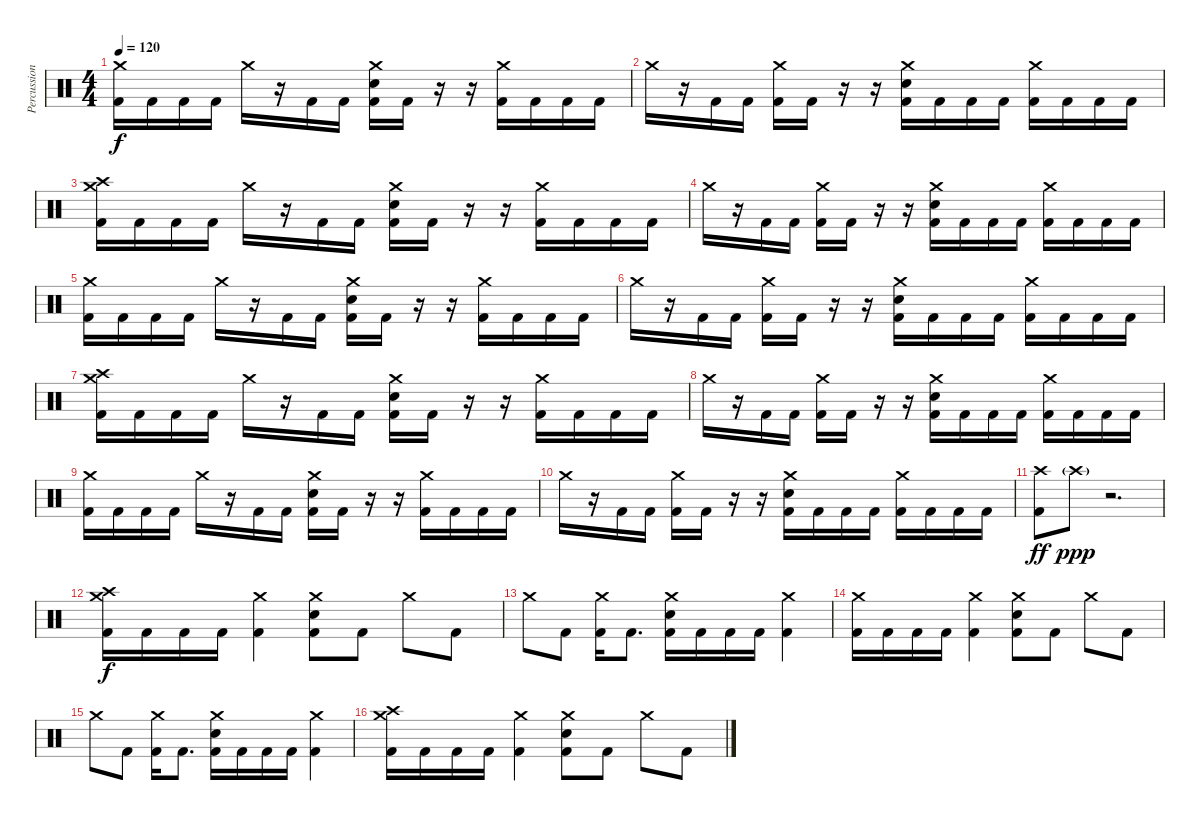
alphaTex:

\track ("Percussion" "Percussion") {instrument percussion}
\staff {score}
\articulation defaults
\ts (4 4)
\tempo 120
\clef neutral
\ks c
("Crash medium (hit)" "Kick (hit) 2").16{dy f} "Kick (hit) 2".16 "Kick (hit) 2".16 "Kick (hit) 2".16 "Crash medium (hit)".16 r.16 "Kick (hit) 2".16 "Kick (hit) 2".16 ("Crash medium (hit)" "Electric Snare (hit)" "Kick (hit) 2").16 "Kick (hit) 2".16 r.16 r.16 ("Crash medium (hit)" "Kick (hit) 2").16 "Kick (hit) 2".16 "Kick (hit) 2".16 "Kick (hit) 2".16 |
"Crash medium (hit)".16 r.16 "Kick (hit) 2".16 "Kick (hit) 2".16 ("Crash medium (hit)" "Kick (hit) 2").16 "Kick (hit) 2".16 r.16 r.16 ("Crash medium (hit)" "Electric Snare (hit)" "Kick (hit) 2").16 "Kick (hit) 2".16 "Kick (hit) 2".16 "Kick (hit) 2".16 ("Crash medium (hit)" "Kick (hit) 2").16 "Kick (hit) 2".16 "Kick (hit) 2".16 "Kick (hit) 2".16 |
("Crash medium (hit)" "Crash high (hit)" "Kick (hit) 2").16 "Kick (hit) 2".16 "Kick (hit) 2".16 "Kick (hit) 2".16 "Crash medium (hit)".16 r.16 "Kick (hit) 2".16 "Kick (hit) 2".16 ("Crash medium (hit)" "Electric Snare (hit)" "Kick (hit) 2").16 "Kick (hit) 2".16 r.16 r.16 ("Crash medium (hit)" "Kick (hit) 2").16 "Kick (hit) 2".16 "Kick (hit) 2".16 "Kick (hit) 2".16 |
"Crash medium (hit)".16 r.16 "Kick (hit) 2".16 "Kick (hit) 2".16 ("Crash medium (hit)" "Kick (hit) 2").16 "Kick (hit) 2".16 r.16 r.16 ("Crash medium (hit)" "Electric Snare (hit)" "Kick (hit) 2").16 "Kick (hit) 2".16 "Kick (hit) 2".16 "Kick (hit) 2".16 ("Crash medium (hit)" "Kick (hit) 2").16 "Kick (hit) 2".16 "Kick (hit) 2".16 "Kick (hit) 2".16 |
("Crash medium (hit)" "Kick (hit) 2").16 "Kick (hit) 2".16 "Kick (hit) 2".16 "Kick (hit) 2".16 "Crash medium (hit)".16 r.16 "Kick (hit) 2".16 "Kick (hit) 2".16 ("Crash medium (hit)" "Electric Snare (hit)" "Kick (hit) 2").16 "Kick (hit) 2".16 r.16 r.16 ("Crash medium (hit)" "Kick (hit) 2").16 "Kick (hit) 2".16 "Kick (hit) 2".16 "Kick (hit) 2".16 |
"Crash medium (hit)".16 r.16 "Kick (hit) 2".16 "Kick (hit) 2".16 ("Crash medium (hit)" "Kick (hit) 2").16 "Kick (hit) 2".16 r.16 r.16 ("Crash medium (hit)" "Electric Snare (hit)" "Kick (hit) 2").16 "Kick (hit) 2".16 "Kick (hit) 2".16 "Kick (hit) 2".16 ("Crash medium (hit)" "Kick (hit) 2").16 "Kick (hit) 2".16 "Kick (hit) 2".16 "Kick (hit) 2".16 |
("Crash medium (hit)" "Crash high (hit)" "Kick (hit) 2").16 "Kick (hit) 2".16 "Kick (hit) 2".16 "Kick (hit) 2".16 "Crash medium (hit)".16 r.16 "Kick (hit) 2".16 "Kick (hit) 2".16 ("Crash medium (hit)" "Electric Snare (hit)" "Kick (hit) 2").16 "Kick (hit) 2".16 r.16 r.16 ("Crash medium (hit)" "Kick (hit) 2").16 "Kick (hit) 2".16 "Kick (hit) 2".16 "Kick (hit) 2".16 |
"Crash medium (hit)".16 r.16 "Kick (hit) 2".16 "Kick (hit) 2".16 ("Crash medium (hit)" "Kick (hit) 2").16 "Kick (hit) 2".16 r.16 r.16 ("Crash medium (hit)" "Electric Snare (hit)" "Kick (hit) 2").16 "Kick (hit) 2".16 "Kick (hit) 2".16 "Kick (hit) 2".16 ("Crash medium (hit)" "Kick (hit) 2").16 "Kick (hit) 2".16 "Kick (hit) 2".16 "Kick (hit) 2".16 |
("Crash medium (hit)" "Kick (hit) 2").16 "Kick (hit) 2".16 "Kick (hit) 2".16 "Kick (hit) 2".16 "Crash medium (hit)".16 r.16 "Kick (hit) 2".16 "Kick (hit) 2".16 ("Crash medium (hit)" "Electric Snare (hit)" "Kick (hit) 2").16 "Kick (hit) 2".16 r.16 r.16 ("Crash medium (hit)" "Kick (hit) 2").16 "Kick (hit) 2".16 "Kick (hit) 2".16 "Kick (hit) 2".16 |
"Crash medium (hit)".16 r.16 "Kick (hit) 2".16 "Kick (hit) 2".16 ("Crash medium (hit)" "Kick (hit) 2").16 "Kick (hit) 2".16 r.16 r.16 ("Crash medium (hit)" "Electric Snare (hit)" "Kick (hit) 2").16 "Kick (hit) 2".16 "Kick (hit) 2".16 "Kick (hit) 2".16 ("Crash medium (hit)" "Kick (hit) 2").16 "Kick (hit) 2".16 "Kick (hit) 2".16 "Kick (hit) 2".16 |
("Crash high (hit)" "Kick (hit) 2").8{dy ff} "Crash high (hit)"{g}.8{dy ppp} r.2{d} |
("Crash medium (hit)" "Crash high (hit)" "Kick (hit) 2").16{dy f} "Kick (hit) 2".16 "Kick (hit) 2".16 "Kick (hit) 2".16 ("Crash medium (hit)" "Kick (hit) 2").4 ("Crash medium (hit)" "Electric Snare (hit)" "Kick (hit) 2").8 "Kick (hit) 2".8 "Crash medium (hit)".8 "Kick (hit) 2".8 |
"Crash medium (hit)".8 "Kick (hit) 2".8 ("Crash medium (hit)" "Kick (hit) 2").16 "Kick (hit) 2".8{d} ("Crash medium (hit)" "Electric Snare (hit)" "Kick (hit) 2").16 "Kick (hit) 2".16 "Kick (hit) 2".16 "Kick (hit) 2".16 ("Crash medium (hit)" "Kick (hit) 2").4 |
("Crash medium (hit)" "Kick (hit) 2").16 "Kick (hit) 2".16 "Kick (hit) 2".16 "Kick (hit) 2".16 ("Crash medium (hit)" "Kick (hit) 2").4 ("Crash medium (hit)" "Electric Snare (hit)" "Kick (hit) 2").8 "Kick (hit) 2".8 "Crash medium (hit)".8 "Kick (hit) 2".8 |
"Crash medium (hit)".8 "Kick (hit) 2".8 ("Crash medium (hit)" "Kick (hit) 2").16 "Kick (hit) 2".8{d} ("Crash medium (hit)" "Electric Snare (hit)" "Kick (hit) 2").16 "Kick (hit) 2".16 "Kick (hit) 2".16 "Kick (hit) 2".16 ("Crash medium (hit)" "Kick (hit) 2").4 |
("Crash medium (hit)" "Crash high (hit)" "Kick (hit) 2").16 "Kick (hit) 2".16 "Kick (hit) 2".16 "Kick (hit) 2".16 ("Crash medium (hit)" "Kick (hit) 2").4 ("Crash medium (hit)" "Electric Snare (hit)" "Kick (hit) 2").8 "Kick (hit) 2".8 "Crash medium (hit)".8 "Kick (hit) 2".8
